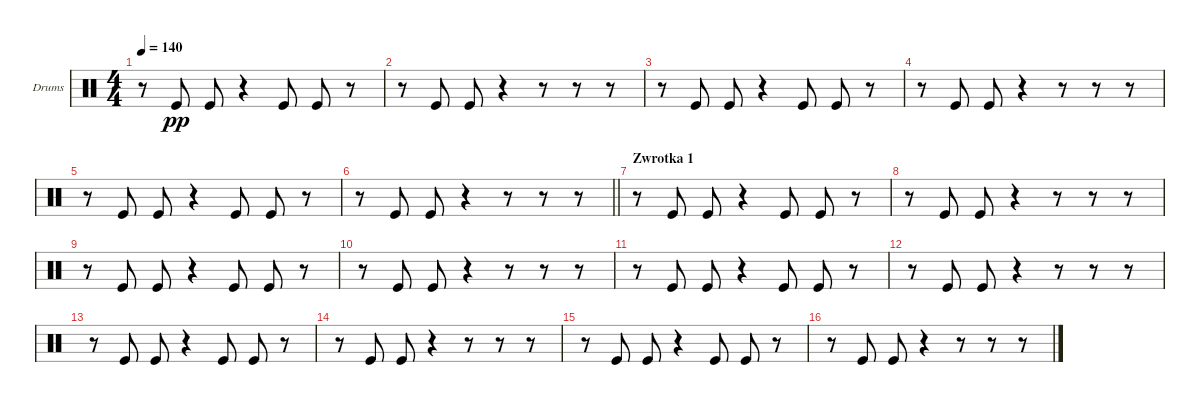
\bracketExtendMode groupsimilarinstruments
\firstSystemTrackNameOrientation horizontal
\otherSystemsTrackNameOrientation horizontal
\track ("Drumkit" "Drums") {instrument percussion}
\staff {score}
\articulation defaults
\ts (4 4)
\tempo 140
\clef neutral
\ks c
r.8{dy pp} "Kick (hit)".8 "Kick (hit)".8 r.4 "Kick (hit)".8 "Kick (hit)".8 r.8 |
r.8 "Kick (hit)".8 "Kick (hit)".8 r.4 r.8 r.8 r.8 |
r.8 "Kick (hit)".8 "Kick (hit)".8 r.4 "Kick (hit)".8 "Kick (hit)".8 r.8 |
r.8 "Kick (hit)".8 "Kick (hit)".8 r.4 r.8 r.8 r.8 |
r.8 "Kick (hit)".8 "Kick (hit)".8 r.4 "Kick (hit)".8 "Kick (hit)".8 r.8 |
\barLineRight lightlight
r.8 "Kick (hit)".8 "Kick (hit)".8 r.4 r.8 r.8 r.8 |
\section ("" "Zwrotka 1")
r.8 "Kick (hit)".8 "Kick (hit)".8 r.4 "Kick (hit)".8 "Kick (hit)".8 r.8 |
r.8 "Kick (hit)".8 "Kick (hit)".8 r.4 r.8 r.8 r.8 |
r.8 "Kick (hit)".8 "Kick (hit)".8 r.4 "Kick (hit)".8 "Kick (hit)".8 r.8 |
r.8 "Kick (hit)".8 "Kick (hit)".8 r.4 r.8 r.8 r.8 |
r.8 "Kick (hit)".8 "Kick (hit)".8 r.4 "Kick (hit)".8 "Kick (hit)".8 r.8 |
r.8 "Kick (hit)".8 "Kick (hit)".8 r.4 r.8 r.8 r.8 |
r.8 "Kick (hit)".8 "Kick (hit)".8 r.4 "Kick (hit)".8 "Kick (hit)".8 r.8 |
r.8 "Kick (hit)".8 "Kick (hit)".8 r.4 r.8 r.8 r.8 |
r.8 "Kick (hit)".8 "Kick (hit)".8 r.4 "Kick (hit)".8 "Kick (hit)".8 r.8 |
r.8 "Kick (hit)".8 "Kick (hit)".8 r.4 r.8 r.8 r.8
